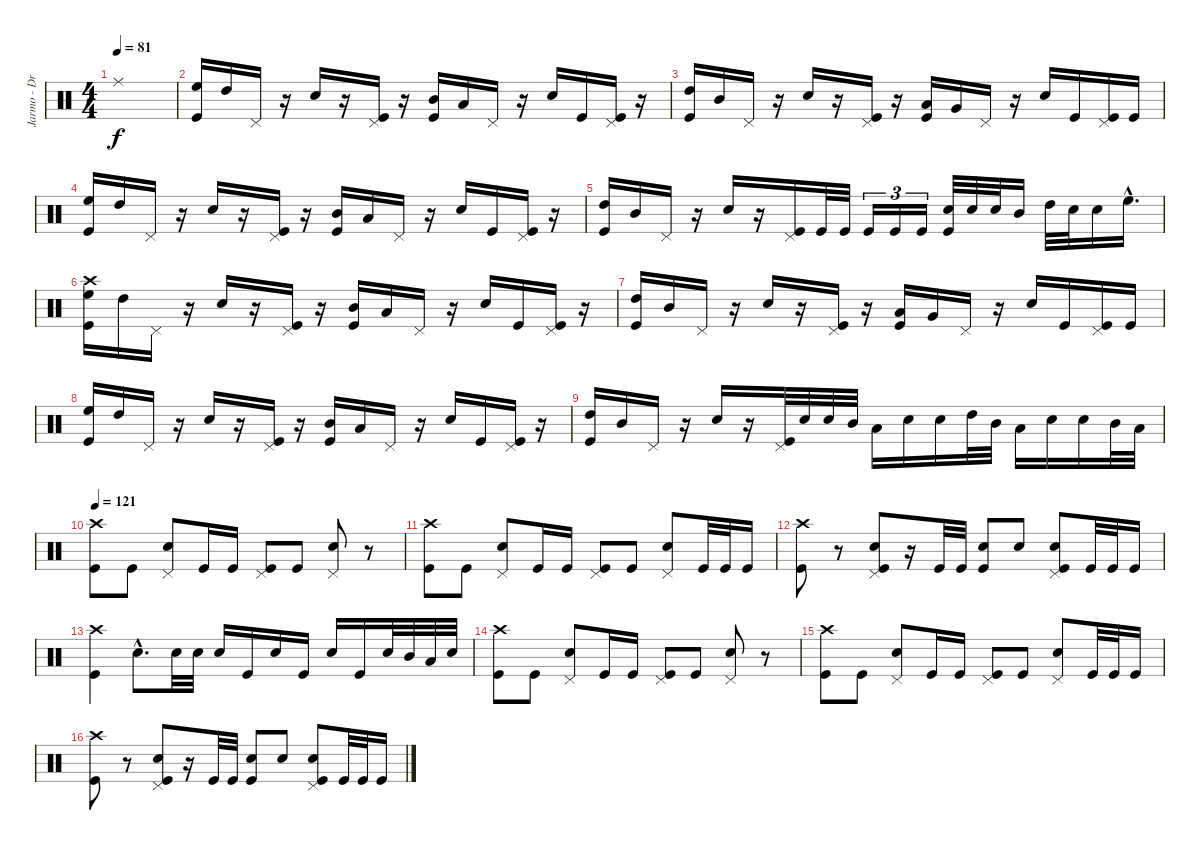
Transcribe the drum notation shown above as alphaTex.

\track ("Jarmo - Drums" "Jarmo - Dr") {instrument percussion}
\staff {score}
\articulation defaults
\ts (4 4)
\tempo 81
\clef neutral
\ks c "Ride (middle)".1{dy f}
|
("Kick (hit)" "High Floor Tom (hit)").16 "High Tom (hit)".16 "Pedal Hi-Hat (hit)".16 r.16 "Electric Snare (hit)".16 r.16 ("Kick (hit)" "Pedal Hi-Hat (hit)").16 r.16 ("Kick (hit)" "Mid Tom (hit)").16 "Low Tom (hit)".16 "Pedal Hi-Hat (hit)".16 r.16 "Electric Snare (hit)".16 "Kick (hit)".16 ("Kick (hit)" "Pedal Hi-Hat (hit)").16 r.16 |
("Kick (hit)" "High Tom (hit)").16 "Mid Tom (hit)".16 "Pedal Hi-Hat (hit)".16 r.16 "Electric Snare (hit)".16 r.16 ("Kick (hit)" "Pedal Hi-Hat (hit)").16 r.16 ("Kick (hit)" "Low Tom (hit)").16 "Very Low Tom (hit)".16 "Pedal Hi-Hat (hit)".16 r.16 "Electric Snare (hit)".16 "Kick (hit)".16 ("Kick (hit)" "Pedal Hi-Hat (hit)").16 "Kick (hit)".16 |
("Kick (hit)" "High Floor Tom (hit)").16 "High Tom (hit)".16 "Pedal Hi-Hat (hit)".16 r.16 "Electric Snare (hit)".16 r.16 ("Kick (hit)" "Pedal Hi-Hat (hit)").16 r.16 ("Kick (hit)" "Mid Tom (hit)").16 "Low Tom (hit)".16 "Pedal Hi-Hat (hit)".16 r.16 "Electric Snare (hit)".16 "Kick (hit)".16 ("Kick (hit)" "Pedal Hi-Hat (hit)").16 r.16 |
("Kick (hit)" "High Tom (hit)").16 "Mid Tom (hit)".16 "Pedal Hi-Hat (hit)".16 r.16 "Electric Snare (hit)".16 r.16 ("Kick (hit)" "Pedal Hi-Hat (hit)").16 "Kick (hit)".32 "Kick (hit)".32 "Kick (hit)".16{tu (3 2)} "Kick (hit)".16{tu (3 2)} "Kick (hit)".16{tu (3 2)} ("Kick (hit)" "Electric Snare (hit)").32 "Electric Snare (hit)".32 "Electric Snare (hit)".32 "Mid Tom (hit)".16 "High Tom (hit)".32 "Electric Snare (hit)".32 "Electric Snare (hit)".16 "High Floor Tom (hit)"{hac}.16{d} |
("Kick (hit)" "Crash high (hit)" "High Floor Tom (hit)").16 "High Tom (hit)".16 "Pedal Hi-Hat (hit)".16 r.16 "Electric Snare (hit)".16 r.16 ("Kick (hit)" "Pedal Hi-Hat (hit)").16 r.16 ("Kick (hit)" "Mid Tom (hit)").16 "Low Tom (hit)".16 "Pedal Hi-Hat (hit)".16 r.16 "Electric Snare (hit)".16 "Kick (hit)".16 ("Kick (hit)" "Pedal Hi-Hat (hit)").16 r.16 |
("Kick (hit)" "High Tom (hit)").16 "Mid Tom (hit)".16 "Pedal Hi-Hat (hit)".16 r.16 "Electric Snare (hit)".16 r.16 ("Kick (hit)" "Pedal Hi-Hat (hit)").16 r.16 ("Kick (hit)" "Low Tom (hit)").16 "Very Low Tom (hit)".16 "Pedal Hi-Hat (hit)".16 r.16 "Electric Snare (hit)".16 "Kick (hit)".16 ("Kick (hit)" "Pedal Hi-Hat (hit)").16 "Kick (hit)".16 |
("Kick (hit)" "High Floor Tom (hit)").16 "High Tom (hit)".16 "Pedal Hi-Hat (hit)".16 r.16 "Electric Snare (hit)".16 r.16 ("Kick (hit)" "Pedal Hi-Hat (hit)").16 r.16 ("Kick (hit)" "Mid Tom (hit)").16 "Low Tom (hit)".16 "Pedal Hi-Hat (hit)".16 r.16 "Electric Snare (hit)".16 "Kick (hit)".16 ("Kick (hit)" "Pedal Hi-Hat (hit)").16 r.16 |
("Kick (hit)" "High Tom (hit)").16 "Mid Tom (hit)".16 "Pedal Hi-Hat (hit)".16 r.16 "Electric Snare (hit)".16 r.16 ("Kick (hit)" "Pedal Hi-Hat (hit)").32 "Electric Snare (hit)".32 "Electric Snare (hit)".32 "Mid Tom (hit)".32 "Low Tom (hit)".16 "Electric Snare (hit)".16 "Electric Snare (hit)".16 "High Tom (hit)".32 "Mid Tom (hit)".32 "Low Tom (hit)".16 "Electric Snare (hit)".16 "Electric Snare (hit)".16 "Mid Tom (hit)".32 "Low Tom (hit)".32 |
\tempo 121
("Kick (hit)" "Crash high (hit)").8 "Kick (hit)".8 ("Electric Snare (hit)" "Pedal Hi-Hat (hit)").8 "Kick (hit)".16 "Kick (hit)".16 ("Kick (hit)" "Pedal Hi-Hat (hit)").8 "Kick (hit)".8 ("Electric Snare (hit)" "Pedal Hi-Hat (hit)").8 r.8 |
("Kick (hit)" "Crash high (hit)").8 "Kick (hit)".8 ("Electric Snare (hit)" "Pedal Hi-Hat (hit)").8 "Kick (hit)".16 "Kick (hit)".16 ("Kick (hit)" "Pedal Hi-Hat (hit)").8 "Kick (hit)".8 ("Electric Snare (hit)" "Pedal Hi-Hat (hit)").8 "Kick (hit)".32 "Kick (hit)".32 "Kick (hit)".16 |
("Kick (hit)" "Crash high (hit)").8 r.8 ("Kick (hit)" "Electric Snare (hit)" "Pedal Hi-Hat (hit)").8 r.16 "Kick (hit)".32 "Kick (hit)".32 ("Kick (hit)" "Electric Snare (hit)").8 "Electric Snare (hit)".8 ("Kick (hit)" "Electric Snare (hit)" "Pedal Hi-Hat (hit)").8 "Kick (hit)".32 "Kick (hit)".32 "Kick (hit)".16 |
("Kick (hit)" "Crash high (hit)").4 "Electric Snare (hit)"{hac}.8{d} "Electric Snare (hit)".32 "Electric Snare (hit)".32 "Electric Snare (hit)".16 "Kick (hit)".16 "Electric Snare (hit)".16 "Kick (hit)".16 "Electric Snare (hit)".16 "Kick (hit)".16 "Electric Snare (hit)".32 "Mid Tom (hit)".32 "Low Tom (hit)".32 "Electric Snare (hit)".32 |
("Kick (hit)" "Crash high (hit)").8 "Kick (hit)".8 ("Electric Snare (hit)" "Pedal Hi-Hat (hit)").8 "Kick (hit)".16 "Kick (hit)".16 ("Kick (hit)" "Pedal Hi-Hat (hit)").8 "Kick (hit)".8 ("Electric Snare (hit)" "Pedal Hi-Hat (hit)").8 r.8 |
("Kick (hit)" "Crash high (hit)").8 "Kick (hit)".8 ("Electric Snare (hit)" "Pedal Hi-Hat (hit)").8 "Kick (hit)".16 "Kick (hit)".16 ("Kick (hit)" "Pedal Hi-Hat (hit)").8 "Kick (hit)".8 ("Electric Snare (hit)" "Pedal Hi-Hat (hit)").8 "Kick (hit)".32 "Kick (hit)".32 "Kick (hit)".16 |
("Kick (hit)" "Crash high (hit)").8 r.8 ("Kick (hit)" "Electric Snare (hit)" "Pedal Hi-Hat (hit)").8 r.16 "Kick (hit)".32 "Kick (hit)".32 ("Kick (hit)" "Electric Snare (hit)").8 "Electric Snare (hit)".8 ("Kick (hit)" "Electric Snare (hit)" "Pedal Hi-Hat (hit)").8 "Kick (hit)".32 "Kick (hit)".32 "Kick (hit)".16
